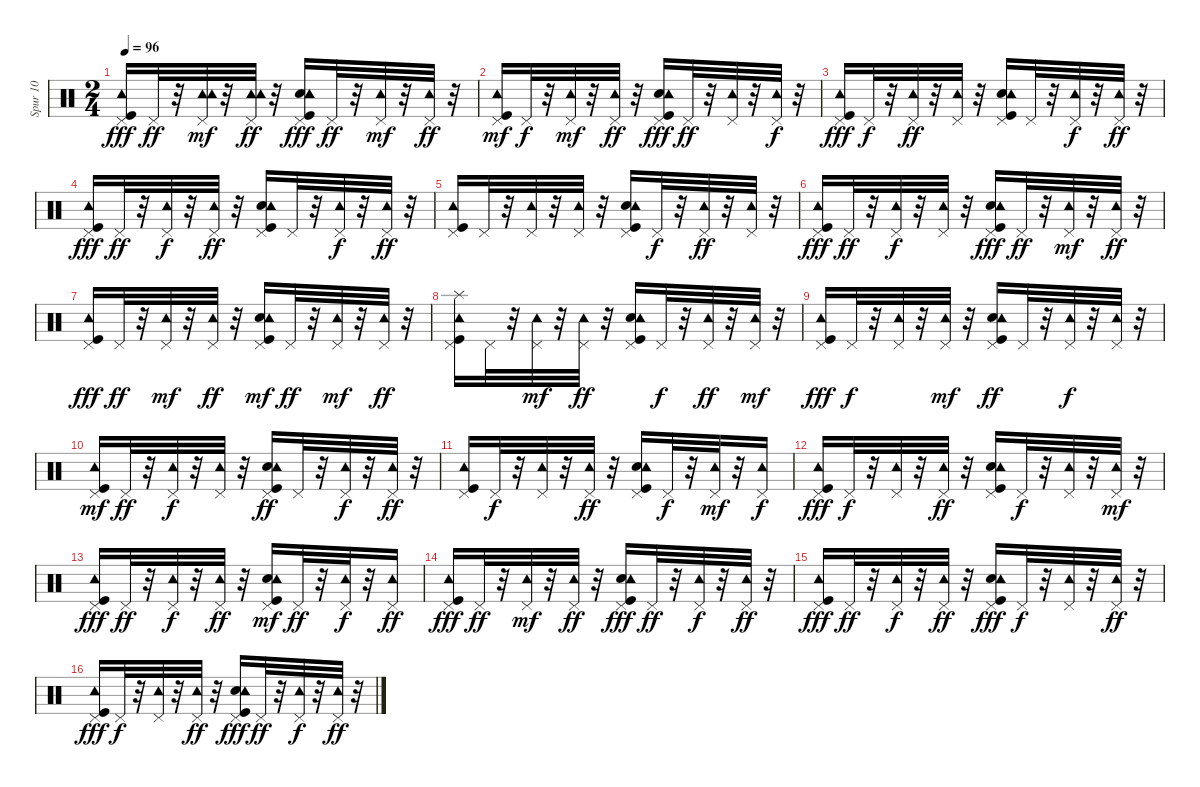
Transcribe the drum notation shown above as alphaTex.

\track ("Spur 10" "Spur 10") {instrument percussion}
\staff {score}
\articulation defaults
\ts (2 4)
\tempo 96
\clef neutral
\ks c
("Kick (hit)" "Tambourine (hit)" "Pedal Hi-Hat (hit)").16{dy fff} "Pedal Hi-Hat (hit)".32{dy ff} r.32 ("Tambourine (hit)" "Tambourine (hit)" "Pedal Hi-Hat (hit)").32{dy mf} r.32 ("Tambourine (hit)" "Tambourine (hit)" "Pedal Hi-Hat (hit)").32{dy ff} r.32 ("Snare (hit) 2" "Kick (hit)" "Tambourine (hit)" "Tambourine (hit)" "Pedal Hi-Hat (hit)").16{dy fff} "Pedal Hi-Hat (hit)".32{dy ff} r.32 ("Tambourine (hit)" "Pedal Hi-Hat (hit)").32{dy mf} r.32 ("Tambourine (hit)" "Pedal Hi-Hat (hit)").32{dy ff} r.32 |
("Kick (hit)" "Tambourine (hit)" "Pedal Hi-Hat (hit)").16{dy mf} "Pedal Hi-Hat (hit)".32{dy f} r.32 ("Tambourine (hit)" "Pedal Hi-Hat (hit)").32{dy mf} r.32 ("Tambourine (hit)" "Pedal Hi-Hat (hit)").32{dy ff} r.32 ("Snare (hit) 2" "Kick (hit)" "Tambourine (hit)" "Pedal Hi-Hat (hit)").16{dy fff} "Pedal Hi-Hat (hit)".32{dy ff} r.32 ("Tambourine (hit)" "Pedal Hi-Hat (hit)").32 r.32 ("Tambourine (hit)" "Pedal Hi-Hat (hit)").32{dy f} r.32 |
("Kick (hit)" "Tambourine (hit)" "Pedal Hi-Hat (hit)").16{dy fff} "Pedal Hi-Hat (hit)".32{dy f} r.32 ("Tambourine (hit)" "Pedal Hi-Hat (hit)").32{dy ff} r.32 ("Tambourine (hit)" "Pedal Hi-Hat (hit)").32 r.32 ("Snare (hit) 2" "Kick (hit)" "Tambourine (hit)" "Pedal Hi-Hat (hit)").16 "Pedal Hi-Hat (hit)".32 r.32 ("Tambourine (hit)" "Pedal Hi-Hat (hit)").32{dy f} r.32 ("Tambourine (hit)" "Pedal Hi-Hat (hit)").32{dy ff} r.32 |
("Kick (hit)" "Tambourine (hit)" "Pedal Hi-Hat (hit)").16{dy fff} "Pedal Hi-Hat (hit)".32{dy ff} r.32 ("Tambourine (hit)" "Pedal Hi-Hat (hit)").32{dy f} r.32 ("Tambourine (hit)" "Pedal Hi-Hat (hit)").32{dy ff} r.32 ("Kick (hit)" "Snare (hit) 2" "Tambourine (hit)" "Pedal Hi-Hat (hit)").16 "Pedal Hi-Hat (hit)".32 r.32 ("Tambourine (hit)" "Pedal Hi-Hat (hit)").32{dy f} r.32 ("Tambourine (hit)" "Pedal Hi-Hat (hit)").32{dy ff} r.32 |
("Kick (hit)" "Tambourine (hit)" "Pedal Hi-Hat (hit)").16 "Pedal Hi-Hat (hit)".32 r.32 ("Tambourine (hit)" "Pedal Hi-Hat (hit)").32 r.32 ("Tambourine (hit)" "Pedal Hi-Hat (hit)").32 r.32 ("Snare (hit) 2" "Kick (hit)" "Tambourine (hit)" "Pedal Hi-Hat (hit)").16 "Pedal Hi-Hat (hit)".32{dy f} r.32 ("Tambourine (hit)" "Pedal Hi-Hat (hit)").32{dy ff} r.32 ("Tambourine (hit)" "Pedal Hi-Hat (hit)").32 r.32 |
("Kick (hit)" "Tambourine (hit)" "Pedal Hi-Hat (hit)").16{dy fff} "Pedal Hi-Hat (hit)".32{dy ff} r.32 ("Tambourine (hit)" "Pedal Hi-Hat (hit)").32{dy f} r.32 ("Tambourine (hit)" "Pedal Hi-Hat (hit)").32 r.32 ("Snare (hit) 2" "Kick (hit)" "Tambourine (hit)" "Pedal Hi-Hat (hit)").16{dy fff} "Pedal Hi-Hat (hit)".32{dy ff} r.32 ("Tambourine (hit)" "Pedal Hi-Hat (hit)").32{dy mf} r.32 ("Tambourine (hit)" "Pedal Hi-Hat (hit)").32{dy ff} r.32 |
("Kick (hit)" "Tambourine (hit)" "Pedal Hi-Hat (hit)").16{dy fff} "Pedal Hi-Hat (hit)".32{dy ff} r.32 ("Tambourine (hit)" "Pedal Hi-Hat (hit)").32{dy mf} r.32 ("Tambourine (hit)" "Pedal Hi-Hat (hit)").32{dy ff} r.32 ("Snare (hit) 2" "Kick (hit)" "Tambourine (hit)" "Pedal Hi-Hat (hit)").16{dy mf} "Pedal Hi-Hat (hit)".32{dy ff} r.32 ("Tambourine (hit)" "Pedal Hi-Hat (hit)").32{dy mf} r.32 ("Tambourine (hit)" "Pedal Hi-Hat (hit)").32{dy ff} r.32 |
("Kick (hit)" "Tambourine (hit)" "Pedal Hi-Hat (hit)" "Splash (hit)").16 "Pedal Hi-Hat (hit)".32 r.32 ("Tambourine (hit)" "Pedal Hi-Hat (hit)").32{dy mf} r.32 ("Tambourine (hit)" "Pedal Hi-Hat (hit)").32{dy ff} r.32 ("Kick (hit)" "Snare (hit) 2" "Tambourine (hit)" "Pedal Hi-Hat (hit)").16 "Pedal Hi-Hat (hit)".32{dy f} r.32 ("Tambourine (hit)" "Pedal Hi-Hat (hit)").32{dy ff} r.32 ("Tambourine (hit)" "Pedal Hi-Hat (hit)").32{dy mf} r.32 |
("Kick (hit)" "Tambourine (hit)" "Pedal Hi-Hat (hit)").16{dy fff} "Pedal Hi-Hat (hit)".32{dy f} r.32 ("Tambourine (hit)" "Pedal Hi-Hat (hit)").32 r.32 ("Tambourine (hit)" "Pedal Hi-Hat (hit)").32{dy mf} r.32 ("Snare (hit) 2" "Kick (hit)" "Tambourine (hit)" "Pedal Hi-Hat (hit)").16{dy ff} "Pedal Hi-Hat (hit)".32 r.32 ("Tambourine (hit)" "Pedal Hi-Hat (hit)").32{dy f} r.32 ("Tambourine (hit)" "Pedal Hi-Hat (hit)").32 r.32 |
("Kick (hit)" "Tambourine (hit)" "Pedal Hi-Hat (hit)").16{dy mf} "Pedal Hi-Hat (hit)".32{dy ff} r.32 ("Tambourine (hit)" "Pedal Hi-Hat (hit)").32{dy f} r.32 ("Tambourine (hit)" "Pedal Hi-Hat (hit)").32 r.32 ("Kick (hit)" "Snare (hit) 2" "Tambourine (hit)" "Pedal Hi-Hat (hit)").16{dy ff} "Pedal Hi-Hat (hit)".32 r.32 ("Tambourine (hit)" "Pedal Hi-Hat (hit)").32{dy f} r.32 ("Tambourine (hit)" "Pedal Hi-Hat (hit)").32{dy ff} r.32 |
("Kick (hit)" "Tambourine (hit)" "Pedal Hi-Hat (hit)").16 "Pedal Hi-Hat (hit)".32{dy f} r.32 ("Tambourine (hit)" "Pedal Hi-Hat (hit)").32 r.32 ("Tambourine (hit)" "Pedal Hi-Hat (hit)").32{dy ff} r.32 ("Kick (hit)" "Snare (hit) 2" "Tambourine (hit)" "Pedal Hi-Hat (hit)").16 "Pedal Hi-Hat (hit)".32{dy f} r.32 ("Tambourine (hit)" "Pedal Hi-Hat (hit)").32{dy mf} r.32 ("Tambourine (hit)" "Pedal Hi-Hat (hit)").16{dy f} |
("Kick (hit)" "Tambourine (hit)" "Pedal Hi-Hat (hit)").16{dy fff} "Pedal Hi-Hat (hit)".32{dy f} r.32 ("Tambourine (hit)" "Pedal Hi-Hat (hit)").32 r.32 ("Tambourine (hit)" "Pedal Hi-Hat (hit)").32{dy ff} r.32 ("Kick (hit)" "Snare (hit) 2" "Tambourine (hit)" "Pedal Hi-Hat (hit)").16 "Pedal Hi-Hat (hit)".32{dy f} r.32 ("Tambourine (hit)" "Pedal Hi-Hat (hit)").32 r.32 ("Tambourine (hit)" "Pedal Hi-Hat (hit)").32{dy mf} r.32 |
("Kick (hit)" "Tambourine (hit)" "Pedal Hi-Hat (hit)").16{dy fff} "Pedal Hi-Hat (hit)".32{dy ff} r.32 ("Tambourine (hit)" "Pedal Hi-Hat (hit)").32{dy f} r.32 ("Tambourine (hit)" "Pedal Hi-Hat (hit)").32{dy ff} r.32 ("Kick (hit)" "Snare (hit) 2" "Tambourine (hit)" "Pedal Hi-Hat (hit)").16{dy mf} "Pedal Hi-Hat (hit)".32{dy ff} r.32 ("Tambourine (hit)" "Pedal Hi-Hat (hit)").32{dy f} r.32 ("Tambourine (hit)" "Pedal Hi-Hat (hit)").16{dy ff} |
("Kick (hit)" "Tambourine (hit)" "Pedal Hi-Hat (hit)").16{dy fff} "Pedal Hi-Hat (hit)".32{dy ff} r.32 ("Tambourine (hit)" "Pedal Hi-Hat (hit)").32{dy mf} r.32 ("Tambourine (hit)" "Pedal Hi-Hat (hit)").32{dy ff} r.32 ("Snare (hit) 2" "Kick (hit)" "Tambourine (hit)" "Pedal Hi-Hat (hit)").16{dy fff} "Pedal Hi-Hat (hit)".32{dy ff} r.32 ("Tambourine (hit)" "Pedal Hi-Hat (hit)").32{dy f} r.32 ("Tambourine (hit)" "Pedal Hi-Hat (hit)").32{dy ff} r.32 |
("Kick (hit)" "Tambourine (hit)" "Pedal Hi-Hat (hit)").16{dy fff} "Pedal Hi-Hat (hit)".32{dy ff} r.32 ("Tambourine (hit)" "Pedal Hi-Hat (hit)").32{dy f} r.32 ("Tambourine (hit)" "Pedal Hi-Hat (hit)").32{dy ff} r.32 ("Snare (hit) 2" "Kick (hit)" "Tambourine (hit)" "Pedal Hi-Hat (hit)").16{dy fff} "Pedal Hi-Hat (hit)".32{dy f} r.32 ("Tambourine (hit)" "Pedal Hi-Hat (hit)").32 r.32 ("Tambourine (hit)" "Pedal Hi-Hat (hit)").32{dy ff} r.32 |
("Kick (hit)" "Tambourine (hit)" "Pedal Hi-Hat (hit)").16{dy fff} "Pedal Hi-Hat (hit)".32{dy f} r.32 ("Tambourine (hit)" "Pedal Hi-Hat (hit)").32 r.32 ("Tambourine (hit)" "Pedal Hi-Hat (hit)").32{dy ff} r.32 ("Snare (hit) 2" "Kick (hit)" "Tambourine (hit)" "Pedal Hi-Hat (hit)").16{dy fff} "Pedal Hi-Hat (hit)".32{dy ff} r.32 ("Tambourine (hit)" "Pedal Hi-Hat (hit)").32{dy f} r.32 ("Tambourine (hit)" "Pedal Hi-Hat (hit)").32{dy ff} r.32
